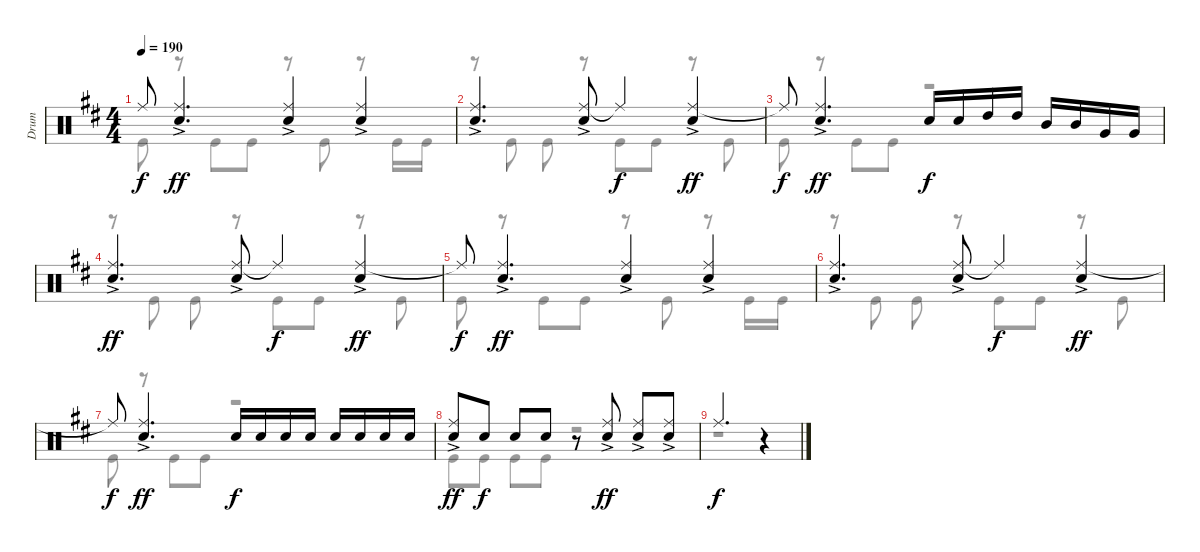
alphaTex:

\track ("Drum" "Drum") {instrument percussion}
\staff {score}
\articulation defaults
\voice
\ts (4 4)
\tempo 190
\clef neutral
\ks d "Ride (middle)"{t}.8{dy f}
("Ride (middle)"{ac} "Snare (hit) 2").4{d dy ff} ("Ride (middle)"{ac} "Snare (hit) 2").4 ("Ride (middle)"{ac} "Snare (hit) 2").4 |
("Ride (middle)"{ac} "Snare (hit) 2").4{d} ("Ride (middle)"{ac} "Snare (hit) 2").8 "Ride (middle)"{t}.4{dy f} ("Ride (middle)"{ac} "Snare (hit) 2").4{dy ff} |
"Ride (middle)"{t}.8{dy f} ("Ride (middle)"{ac} "Snare (hit) 2").4{d dy ff} "Snare (hit) 2".16{dy f} "Snare (hit) 2".16 "High Tom (hit)".16 "High Tom (hit)".16 "Mid Tom (hit)".16 "Mid Tom (hit)".16 "Very Low Tom (hit)".16 "Very Low Tom (hit)".16 |
("Ride (middle)"{ac} "Snare (hit) 2").4{d dy ff} ("Ride (middle)"{ac} "Snare (hit) 2").8 "Ride (middle)"{t}.4{dy f} ("Ride (middle)"{ac} "Snare (hit) 2").4{dy ff} |
"Ride (middle)"{t}.8{dy f} ("Ride (middle)"{ac} "Snare (hit) 2").4{d dy ff} ("Ride (middle)"{ac} "Snare (hit) 2").4 ("Ride (middle)"{ac} "Snare (hit) 2").4 |
("Ride (middle)"{ac} "Snare (hit) 2").4{d} ("Ride (middle)"{ac} "Snare (hit) 2").8 "Ride (middle)"{t}.4{dy f} ("Ride (middle)"{ac} "Snare (hit) 2").4{dy ff} |
"Ride (middle)"{t}.8{dy f} ("Ride (middle)"{ac} "Snare (hit) 2").4{d dy ff} "Snare (hit) 2".16{dy f} "Snare (hit) 2".16 "Snare (hit) 2".16 "Snare (hit) 2".16 "Snare (hit) 2".16 "Snare (hit) 2".16 "Snare (hit) 2".16 "Snare (hit) 2".16 |
("Ride (middle)"{ac} "Snare (hit) 2").8{dy ff} "Snare (hit) 2".8{dy f} "Snare (hit) 2".8 "Snare (hit) 2".8 r.8 ("Ride (middle)"{ac} "Snare (hit) 2").8{dy ff} ("Ride (middle)"{ac} "Snare (hit) 2").8 ("Ride (middle)"{ac} "Snare (hit) 2").8 |
"Ride (middle)".2{d dy f} r.4
\voice
\clef neutral
\ottava regular
\simile none
\ks d "Kick (hit)".8{dy f}
r.8 "Kick (hit)".8 "Kick (hit)".8 r.8 "Kick (hit)".8 r.8 "Kick (hit)".16 "Kick (hit)".16 |
r.8 "Kick (hit)".8 "Kick (hit)".8 r.8 "Kick (hit)".8 "Kick (hit)".8 r.8 "Kick (hit)".8 |
"Kick (hit)".8 r.8 "Kick (hit)".8 "Kick (hit)".8 r.2 |
r.8 "Kick (hit)".8 "Kick (hit)".8 r.8 "Kick (hit)".8 "Kick (hit)".8 r.8 "Kick (hit)".8 |
"Kick (hit)".8 r.8 "Kick (hit)".8 "Kick (hit)".8 r.8 "Kick (hit)".8 r.8 "Kick (hit)".16 "Kick (hit)".16 |
r.8 "Kick (hit)".8 "Kick (hit)".8 r.8 "Kick (hit)".8 "Kick (hit)".8 r.8 "Kick (hit)".8 |
"Kick (hit)".8 r.8 "Kick (hit)".8 "Kick (hit)".8 r.2 |
"Kick (hit)".8 "Kick (hit)".8 "Kick (hit)".8 "Kick (hit)".8 r.2 |
r.1
